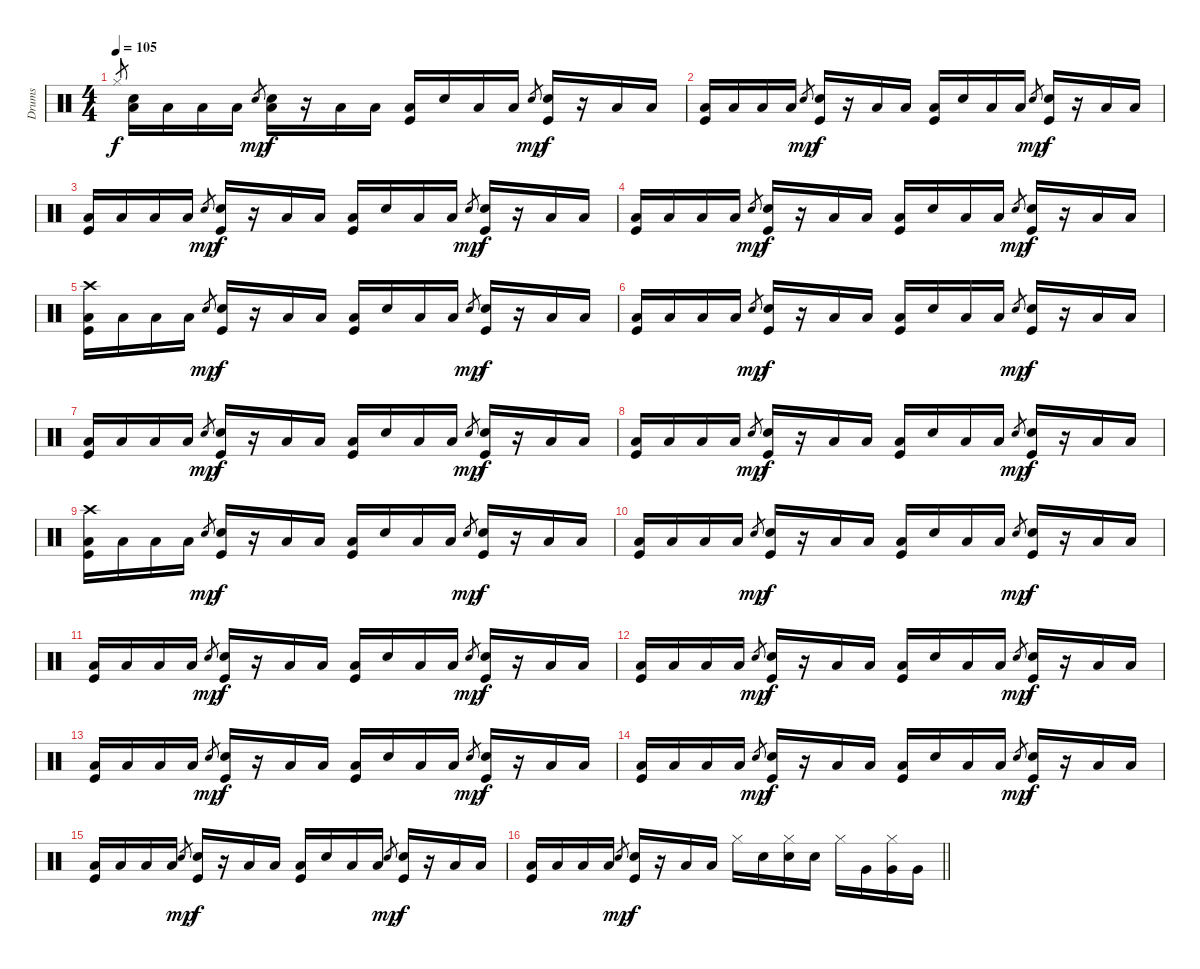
\track ("Drums" "Drums") {instrument percussion}
\staff {score}
\articulation defaults
\ts (4 4)
\tempo 105
\clef neutral
\ks c "Hi-Hat (closed)".8{gr dy f}
("Low Floor Tom (hit)" "Snare (hit) 2").16 "Low Floor Tom (hit)".16 "Low Floor Tom (hit)".16 "Low Floor Tom (hit)".16 "Snare (hit) 2".8{gr dy mp} ("Snare (hit) 2" "Low Floor Tom (hit)").16{dy f} r.16 "Low Floor Tom (hit)".16 "Low Floor Tom (hit)".16 ("Low Floor Tom (hit)" "Kick (hit)").16 "Snare (hit) 2".16 "Low Floor Tom (hit)".16 "Low Floor Tom (hit)".16 "Snare (hit) 2".8{gr dy mp} ("Snare (hit) 2" "Kick (hit)").16{dy f} r.16 "Low Floor Tom (hit)".16 "Low Floor Tom (hit)".16 |
("Low Floor Tom (hit)" "Kick (hit)").16 "Low Floor Tom (hit)".16 "Low Floor Tom (hit)".16 "Low Floor Tom (hit)".16 "Snare (hit) 2".8{gr dy mp} ("Snare (hit) 2" "Kick (hit)").16{dy f} r.16 "Low Floor Tom (hit)".16 "Low Floor Tom (hit)".16 ("Low Floor Tom (hit)" "Kick (hit)").16 "Snare (hit) 2".16 "Low Floor Tom (hit)".16 "Low Floor Tom (hit)".16 "Snare (hit) 2".8{gr dy mp} ("Snare (hit) 2" "Kick (hit)").16{dy f} r.16 "Low Floor Tom (hit)".16 "Low Floor Tom (hit)".16 |
("Low Floor Tom (hit)" "Kick (hit)").16 "Low Floor Tom (hit)".16 "Low Floor Tom (hit)".16 "Low Floor Tom (hit)".16 "Snare (hit) 2".8{gr dy mp} ("Snare (hit) 2" "Kick (hit)").16{dy f} r.16 "Low Floor Tom (hit)".16 "Low Floor Tom (hit)".16 ("Low Floor Tom (hit)" "Kick (hit)").16 "Snare (hit) 2".16 "Low Floor Tom (hit)".16 "Low Floor Tom (hit)".16 "Snare (hit) 2".8{gr dy mp} ("Snare (hit) 2" "Kick (hit)").16{dy f} r.16 "Low Floor Tom (hit)".16 "Low Floor Tom (hit)".16 |
("Low Floor Tom (hit)" "Kick (hit)").16 "Low Floor Tom (hit)".16 "Low Floor Tom (hit)".16 "Low Floor Tom (hit)".16 "Snare (hit) 2".8{gr dy mp} ("Snare (hit) 2" "Kick (hit)").16{dy f} r.16 "Low Floor Tom (hit)".16 "Low Floor Tom (hit)".16 ("Low Floor Tom (hit)" "Kick (hit)").16 "Snare (hit) 2".16 "Low Floor Tom (hit)".16 "Low Floor Tom (hit)".16 "Snare (hit) 2".8{gr dy mp} ("Snare (hit) 2" "Kick (hit)").16{dy f} r.16 "Low Floor Tom (hit)".16 "Low Floor Tom (hit)".16 |
("Crash high (hit)" "Low Floor Tom (hit)" "Kick (hit)").16 "Low Floor Tom (hit)".16 "Low Floor Tom (hit)".16 "Low Floor Tom (hit)".16 "Snare (hit) 2".8{gr dy mp} ("Snare (hit) 2" "Kick (hit)").16{dy f} r.16 "Low Floor Tom (hit)".16 "Low Floor Tom (hit)".16 ("Low Floor Tom (hit)" "Kick (hit)").16 "Snare (hit) 2".16 "Low Floor Tom (hit)".16 "Low Floor Tom (hit)".16 "Snare (hit) 2".8{gr dy mp} ("Snare (hit) 2" "Kick (hit)").16{dy f} r.16 "Low Floor Tom (hit)".16 "Low Floor Tom (hit)".16 |
("Low Floor Tom (hit)" "Kick (hit)").16 "Low Floor Tom (hit)".16 "Low Floor Tom (hit)".16 "Low Floor Tom (hit)".16 "Snare (hit) 2".8{gr dy mp} ("Snare (hit) 2" "Kick (hit)").16{dy f} r.16 "Low Floor Tom (hit)".16 "Low Floor Tom (hit)".16 ("Low Floor Tom (hit)" "Kick (hit)").16 "Snare (hit) 2".16 "Low Floor Tom (hit)".16 "Low Floor Tom (hit)".16 "Snare (hit) 2".8{gr dy mp} ("Snare (hit) 2" "Kick (hit)").16{dy f} r.16 "Low Floor Tom (hit)".16 "Low Floor Tom (hit)".16 |
("Low Floor Tom (hit)" "Kick (hit)").16 "Low Floor Tom (hit)".16 "Low Floor Tom (hit)".16 "Low Floor Tom (hit)".16 "Snare (hit) 2".8{gr dy mp} ("Snare (hit) 2" "Kick (hit)").16{dy f} r.16 "Low Floor Tom (hit)".16 "Low Floor Tom (hit)".16 ("Low Floor Tom (hit)" "Kick (hit)").16 "Snare (hit) 2".16 "Low Floor Tom (hit)".16 "Low Floor Tom (hit)".16 "Snare (hit) 2".8{gr dy mp} ("Snare (hit) 2" "Kick (hit)").16{dy f} r.16 "Low Floor Tom (hit)".16 "Low Floor Tom (hit)".16 |
("Low Floor Tom (hit)" "Kick (hit)").16 "Low Floor Tom (hit)".16 "Low Floor Tom (hit)".16 "Low Floor Tom (hit)".16 "Snare (hit) 2".8{gr dy mp} ("Snare (hit) 2" "Kick (hit)").16{dy f} r.16 "Low Floor Tom (hit)".16 "Low Floor Tom (hit)".16 ("Low Floor Tom (hit)" "Kick (hit)").16 "Snare (hit) 2".16 "Low Floor Tom (hit)".16 "Low Floor Tom (hit)".16 "Snare (hit) 2".8{gr dy mp} ("Snare (hit) 2" "Kick (hit)").16{dy f} r.16 "Low Floor Tom (hit)".16 "Low Floor Tom (hit)".16 |
("Crash high (hit)" "Low Floor Tom (hit)" "Kick (hit)").16 "Low Floor Tom (hit)".16 "Low Floor Tom (hit)".16 "Low Floor Tom (hit)".16 "Snare (hit) 2".8{gr dy mp} ("Snare (hit) 2" "Kick (hit)").16{dy f} r.16 "Low Floor Tom (hit)".16 "Low Floor Tom (hit)".16 ("Low Floor Tom (hit)" "Kick (hit)").16 "Snare (hit) 2".16 "Low Floor Tom (hit)".16 "Low Floor Tom (hit)".16 "Snare (hit) 2".8{gr dy mp} ("Snare (hit) 2" "Kick (hit)").16{dy f} r.16 "Low Floor Tom (hit)".16 "Low Floor Tom (hit)".16 |
("Low Floor Tom (hit)" "Kick (hit)").16 "Low Floor Tom (hit)".16 "Low Floor Tom (hit)".16 "Low Floor Tom (hit)".16 "Snare (hit) 2".8{gr dy mp} ("Snare (hit) 2" "Kick (hit)").16{dy f} r.16 "Low Floor Tom (hit)".16 "Low Floor Tom (hit)".16 ("Low Floor Tom (hit)" "Kick (hit)").16 "Snare (hit) 2".16 "Low Floor Tom (hit)".16 "Low Floor Tom (hit)".16 "Snare (hit) 2".8{gr dy mp} ("Snare (hit) 2" "Kick (hit)").16{dy f} r.16 "Low Floor Tom (hit)".16 "Low Floor Tom (hit)".16 |
("Low Floor Tom (hit)" "Kick (hit)").16 "Low Floor Tom (hit)".16 "Low Floor Tom (hit)".16 "Low Floor Tom (hit)".16 "Snare (hit) 2".8{gr dy mp} ("Snare (hit) 2" "Kick (hit)").16{dy f} r.16 "Low Floor Tom (hit)".16 "Low Floor Tom (hit)".16 ("Low Floor Tom (hit)" "Kick (hit)").16 "Snare (hit) 2".16 "Low Floor Tom (hit)".16 "Low Floor Tom (hit)".16 "Snare (hit) 2".8{gr dy mp} ("Snare (hit) 2" "Kick (hit)").16{dy f} r.16 "Low Floor Tom (hit)".16 "Low Floor Tom (hit)".16 |
("Low Floor Tom (hit)" "Kick (hit)").16 "Low Floor Tom (hit)".16 "Low Floor Tom (hit)".16 "Low Floor Tom (hit)".16 "Snare (hit) 2".8{gr dy mp} ("Snare (hit) 2" "Kick (hit)").16{dy f} r.16 "Low Floor Tom (hit)".16 "Low Floor Tom (hit)".16 ("Low Floor Tom (hit)" "Kick (hit)").16 "Snare (hit) 2".16 "Low Floor Tom (hit)".16 "Low Floor Tom (hit)".16 "Snare (hit) 2".8{gr dy mp} ("Snare (hit) 2" "Kick (hit)").16{dy f} r.16 "Low Floor Tom (hit)".16 "Low Floor Tom (hit)".16 |
("Low Floor Tom (hit)" "Kick (hit)").16 "Low Floor Tom (hit)".16 "Low Floor Tom (hit)".16 "Low Floor Tom (hit)".16 "Snare (hit) 2".8{gr dy mp} ("Snare (hit) 2" "Kick (hit)").16{dy f} r.16 "Low Floor Tom (hit)".16 "Low Floor Tom (hit)".16 ("Low Floor Tom (hit)" "Kick (hit)").16 "Snare (hit) 2".16 "Low Floor Tom (hit)".16 "Low Floor Tom (hit)".16 "Snare (hit) 2".8{gr dy mp} ("Snare (hit) 2" "Kick (hit)").16{dy f} r.16 "Low Floor Tom (hit)".16 "Low Floor Tom (hit)".16 |
("Low Floor Tom (hit)" "Kick (hit)").16 "Low Floor Tom (hit)".16 "Low Floor Tom (hit)".16 "Low Floor Tom (hit)".16 "Snare (hit) 2".8{gr dy mp} ("Snare (hit) 2" "Kick (hit)").16{dy f} r.16 "Low Floor Tom (hit)".16 "Low Floor Tom (hit)".16 ("Low Floor Tom (hit)" "Kick (hit)").16 "Snare (hit) 2".16 "Low Floor Tom (hit)".16 "Low Floor Tom (hit)".16 "Snare (hit) 2".8{gr dy mp} ("Snare (hit) 2" "Kick (hit)").16{dy f} r.16 "Low Floor Tom (hit)".16 "Low Floor Tom (hit)".16 |
("Low Floor Tom (hit)" "Kick (hit)").16 "Low Floor Tom (hit)".16 "Low Floor Tom (hit)".16 "Low Floor Tom (hit)".16 "Snare (hit) 2".8{gr dy mp} ("Snare (hit) 2" "Kick (hit)").16{dy f} r.16 "Low Floor Tom (hit)".16 "Low Floor Tom (hit)".16 ("Low Floor Tom (hit)" "Kick (hit)").16 "Snare (hit) 2".16 "Low Floor Tom (hit)".16 "Low Floor Tom (hit)".16 "Snare (hit) 2".8{gr dy mp} ("Snare (hit) 2" "Kick (hit)").16{dy f} r.16 "Low Floor Tom (hit)".16 "Low Floor Tom (hit)".16 |
\barLineRight lightlight
("Low Floor Tom (hit)" "Kick (hit)").16 "Low Floor Tom (hit)".16 "Low Floor Tom (hit)".16 "Low Floor Tom (hit)".16 "Snare (hit) 2".8{gr dy mp} ("Snare (hit) 2" "Kick (hit)").16{dy f} r.16 "Low Floor Tom (hit)".16 "Low Floor Tom (hit)".16 "Hi-Hat (closed)".16 "Snare (hit) 2".16 ("Hi-Hat (closed)" "Snare (hit) 2").16 "Snare (hit) 2".16 "Hi-Hat (closed)".16 "Very Low Tom (hit)".16 ("Hi-Hat (closed)" "Very Low Tom (hit)").16 "Very Low Tom (hit)".16
